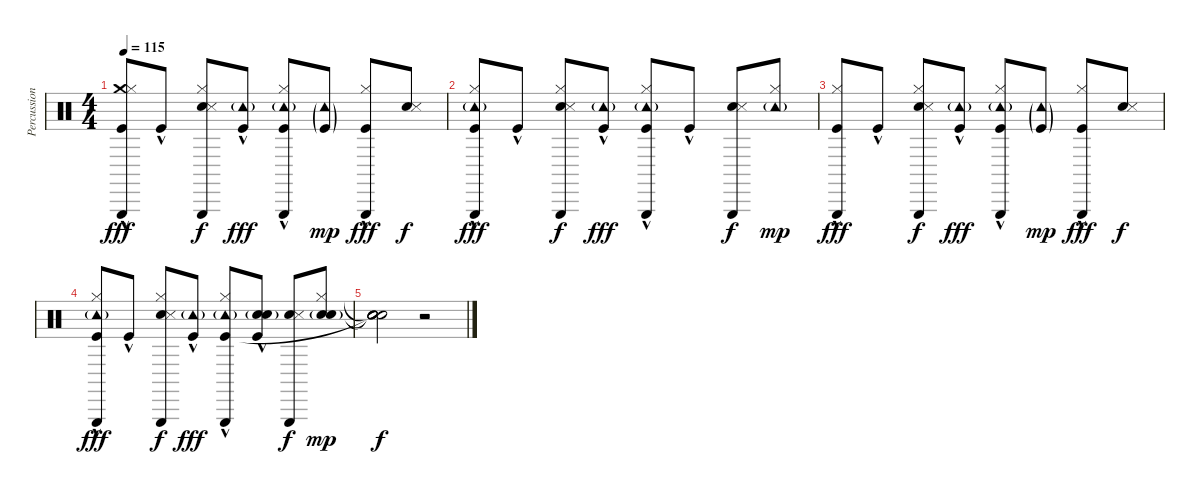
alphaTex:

\track ("Percussion" "Percussion") {instrument percussion}
\staff {score}
\articulation defaults
\ts (4 4)
\tempo 115
\clef neutral
\ks c
("Triangle (hit)" "Crash medium (hit)" "Hi-Hat (closed)" "Kick (hit)"{hac}).8{dy fff} "Kick (hit)"{hac}.8 ("Hand Clap (hit)" "Snare (side stick) 3" "Hi-Hat (closed)" "Triangle (hit)").8{dy f} ("Tambourine (hit)"{g} "Kick (hit)"{hac}).8{dy fff} ("Triangle (hit)" "Hi-Hat (closed)" "Tambourine (hit)"{g} "Kick (hit)"{hac}).8 ("Tambourine (hit)"{g} "Kick (hit)"{g}).8{dy mp} ("Triangle (hit)" "Hi-Hat (closed)" "Kick (hit)"{hac}).8{dy fff} ("Hand Clap (hit)" "Snare (side stick) 3").8{dy f} |
("Triangle (hit)" "Hi-Hat (closed)" "Tambourine (hit)"{g} "Kick (hit)"{hac}).8{dy fff} "Kick (hit)"{hac}.8 ("Hand Clap (hit)" "Snare (side stick) 3" "Hi-Hat (closed)" "Triangle (hit)").8{dy f} ("Tambourine (hit)"{g} "Kick (hit)"{hac}).8{dy fff} ("Triangle (hit)" "Hi-Hat (closed)" "Tambourine (hit)"{g} "Kick (hit)"{hac}).8 "Kick (hit)"{hac}.8 ("Hand Clap (hit)" "Snare (side stick) 3" "Triangle (hit)").8{dy f} ("Hi-Hat (closed)" "Tambourine (hit)"{g}).8{dy mp} |
("Triangle (hit)" "Hi-Hat (closed)" "Kick (hit)"{hac}).8{dy fff} "Kick (hit)"{hac}.8 ("Hand Clap (hit)" "Snare (side stick) 3" "Hi-Hat (closed)" "Triangle (hit)").8{dy f} ("Tambourine (hit)"{g} "Kick (hit)"{hac}).8{dy fff} ("Triangle (hit)" "Hi-Hat (closed)" "Tambourine (hit)"{g} "Kick (hit)"{hac}).8 ("Tambourine (hit)"{g} "Kick (hit)"{g}).8{dy mp} ("Triangle (hit)" "Hi-Hat (closed)" "Kick (hit)"{hac}).8{dy fff} ("Hand Clap (hit)" "Snare (side stick) 3").8{dy f} |
("Triangle (hit)" "Hi-Hat (closed)" "Tambourine (hit)"{g} "Kick (hit)"{hac}).8{dy fff} "Kick (hit)"{hac}.8 ("Hand Clap (hit)" "Snare (side stick) 3" "Hi-Hat (closed)" "Triangle (hit)").8{dy f} ("Tambourine (hit)"{g} "Kick (hit)"{hac}).8{dy fff} ("Triangle (hit)" "Hi-Hat (closed)" "Tambourine (hit)"{g} "Kick (hit)"{hac}).8 ("Snare (hit) 2" "Electric Snare (hit)"{g} "Kick (hit)"{hac}).8 ("Hand Clap (hit)" "Snare (side stick) 3" "Triangle (hit)").8{dy f} ("Hi-Hat (closed)" "Snare (hit) 2" "Electric Snare (hit)"{g}).8{dy mp} |
("Snare (hit)"{t} "Snare (hit)"{t} "Snare (hit)"{t} "Snare (hit)"{t} "Snare (hit)").2{dy f} r.2
